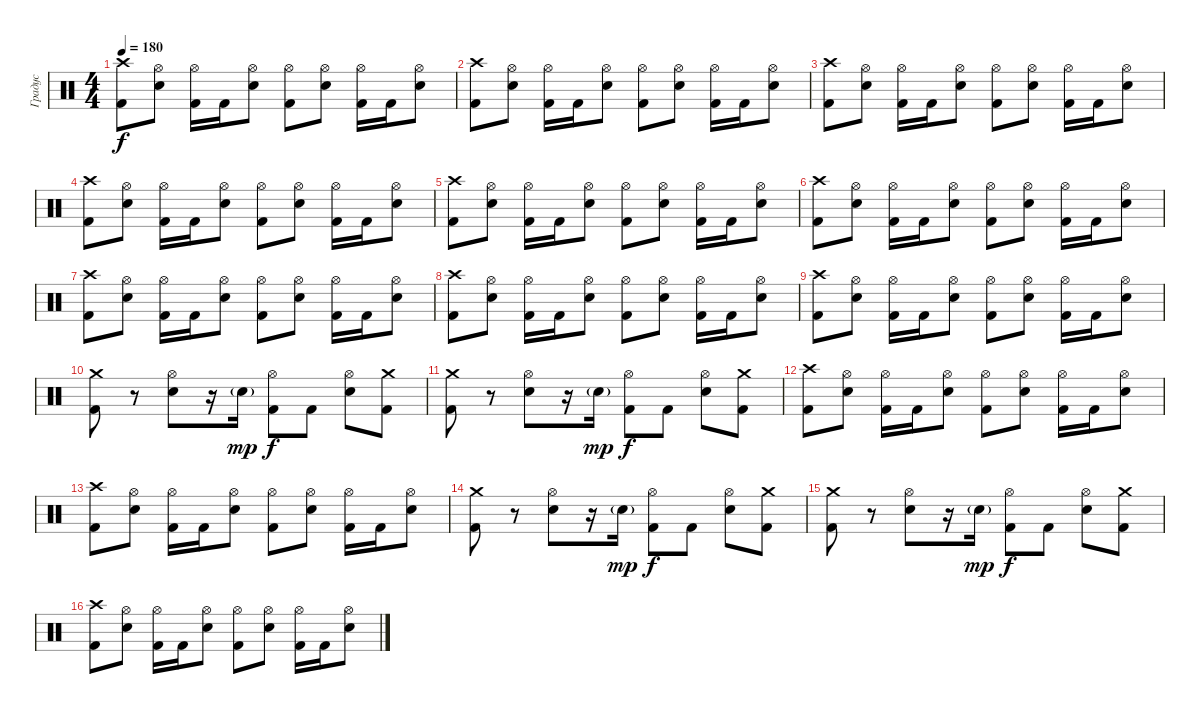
\track ("Градус" "Градус") {instrument percussion}
\staff {score}
\articulation defaults
\ts (4 4)
\tempo 180
\clef neutral
\ks c
("Kick (hit) 2" "Crash high (hit)").8{dy f} ("Electric Snare (hit)" "Hi-Hat (open)").8 ("Kick (hit) 2" "Hi-Hat (open)").16 "Kick (hit) 2".16 ("Electric Snare (hit)" "Hi-Hat (open)").8 ("Kick (hit) 2" "Hi-Hat (open)").8 ("Electric Snare (hit)" "Hi-Hat (open)").8 ("Kick (hit) 2" "Hi-Hat (open)").16 "Kick (hit) 2".16 ("Electric Snare (hit)" "Hi-Hat (open)").8 |
("Kick (hit) 2" "Crash high (hit)").8 ("Electric Snare (hit)" "Hi-Hat (open)").8 ("Kick (hit) 2" "Hi-Hat (open)").16 "Kick (hit) 2".16 ("Electric Snare (hit)" "Hi-Hat (open)").8 ("Kick (hit) 2" "Hi-Hat (open)").8 ("Electric Snare (hit)" "Hi-Hat (open)").8 ("Kick (hit) 2" "Hi-Hat (open)").16 "Kick (hit) 2".16 ("Electric Snare (hit)" "Hi-Hat (open)").8 |
("Kick (hit) 2" "Crash high (hit)").8 ("Electric Snare (hit)" "Hi-Hat (open)").8 ("Kick (hit) 2" "Hi-Hat (open)").16 "Kick (hit) 2".16 ("Electric Snare (hit)" "Hi-Hat (open)").8 ("Kick (hit) 2" "Hi-Hat (open)").8 ("Electric Snare (hit)" "Hi-Hat (open)").8 ("Kick (hit) 2" "Hi-Hat (open)").16 "Kick (hit) 2".16 ("Electric Snare (hit)" "Hi-Hat (open)").8 |
("Kick (hit) 2" "Crash high (hit)").8 ("Electric Snare (hit)" "Hi-Hat (open)").8 ("Kick (hit) 2" "Hi-Hat (open)").16 "Kick (hit) 2".16 ("Electric Snare (hit)" "Hi-Hat (open)").8 ("Kick (hit) 2" "Hi-Hat (open)").8 ("Electric Snare (hit)" "Hi-Hat (open)").8 ("Kick (hit) 2" "Hi-Hat (open)").16 "Kick (hit) 2".16 ("Electric Snare (hit)" "Hi-Hat (open)").8 |
("Kick (hit) 2" "Crash high (hit)").8 ("Electric Snare (hit)" "Hi-Hat (open)").8 ("Kick (hit) 2" "Hi-Hat (open)").16 "Kick (hit) 2".16 ("Electric Snare (hit)" "Hi-Hat (open)").8 ("Kick (hit) 2" "Hi-Hat (open)").8 ("Electric Snare (hit)" "Hi-Hat (open)").8 ("Kick (hit) 2" "Hi-Hat (open)").16 "Kick (hit) 2".16 ("Electric Snare (hit)" "Hi-Hat (open)").8 |
("Kick (hit) 2" "Crash high (hit)").8 ("Electric Snare (hit)" "Hi-Hat (open)").8 ("Kick (hit) 2" "Hi-Hat (open)").16 "Kick (hit) 2".16 ("Electric Snare (hit)" "Hi-Hat (open)").8 ("Kick (hit) 2" "Hi-Hat (open)").8 ("Electric Snare (hit)" "Hi-Hat (open)").8 ("Kick (hit) 2" "Hi-Hat (open)").16 "Kick (hit) 2".16 ("Electric Snare (hit)" "Hi-Hat (open)").8 |
("Kick (hit) 2" "Crash high (hit)").8 ("Electric Snare (hit)" "Hi-Hat (open)").8 ("Kick (hit) 2" "Hi-Hat (open)").16 "Kick (hit) 2".16 ("Electric Snare (hit)" "Hi-Hat (open)").8 ("Kick (hit) 2" "Hi-Hat (open)").8 ("Electric Snare (hit)" "Hi-Hat (open)").8 ("Kick (hit) 2" "Hi-Hat (open)").16 "Kick (hit) 2".16 ("Electric Snare (hit)" "Hi-Hat (open)").8 |
("Kick (hit) 2" "Crash high (hit)").8 ("Electric Snare (hit)" "Hi-Hat (open)").8 ("Kick (hit) 2" "Hi-Hat (open)").16 "Kick (hit) 2".16 ("Electric Snare (hit)" "Hi-Hat (open)").8 ("Kick (hit) 2" "Hi-Hat (open)").8 ("Electric Snare (hit)" "Hi-Hat (open)").8 ("Kick (hit) 2" "Hi-Hat (open)").16 "Kick (hit) 2".16 ("Electric Snare (hit)" "Hi-Hat (open)").8 |
("Kick (hit) 2" "Crash high (hit)").8 ("Electric Snare (hit)" "Hi-Hat (open)").8 ("Kick (hit) 2" "Hi-Hat (open)").16 "Kick (hit) 2".16 ("Electric Snare (hit)" "Hi-Hat (open)").8 ("Kick (hit) 2" "Hi-Hat (open)").8 ("Electric Snare (hit)" "Hi-Hat (open)").8 ("Kick (hit) 2" "Hi-Hat (open)").16 "Kick (hit) 2".16 ("Electric Snare (hit)" "Hi-Hat (open)").8 |
("Kick (hit) 2" "Crash medium (hit)").8 r.8 ("Electric Snare (hit)" "Hi-Hat (open)").8 r.16 "Electric Snare (hit)"{g}.16{dy mp} ("Kick (hit) 2" "Hi-Hat (open)").8{dy f} "Kick (hit) 2".8 ("Electric Snare (hit)" "Hi-Hat (open)").8 ("Kick (hit) 2" "Crash medium (hit)").8 |
("Kick (hit) 2" "Crash medium (hit)").8 r.8 ("Electric Snare (hit)" "Hi-Hat (open)").8 r.16 "Electric Snare (hit)"{g}.16{dy mp} ("Kick (hit) 2" "Hi-Hat (open)").8{dy f} "Kick (hit) 2".8 ("Electric Snare (hit)" "Hi-Hat (open)").8 ("Kick (hit) 2" "Crash medium (hit)").8 |
("Kick (hit) 2" "Crash high (hit)").8 ("Electric Snare (hit)" "Hi-Hat (open)").8 ("Kick (hit) 2" "Hi-Hat (open)").16 "Kick (hit) 2".16 ("Electric Snare (hit)" "Hi-Hat (open)").8 ("Kick (hit) 2" "Hi-Hat (open)").8 ("Electric Snare (hit)" "Hi-Hat (open)").8 ("Kick (hit) 2" "Hi-Hat (open)").16 "Kick (hit) 2".16 ("Electric Snare (hit)" "Hi-Hat (open)").8 |
("Kick (hit) 2" "Crash high (hit)").8 ("Electric Snare (hit)" "Hi-Hat (open)").8 ("Kick (hit) 2" "Hi-Hat (open)").16 "Kick (hit) 2".16 ("Electric Snare (hit)" "Hi-Hat (open)").8 ("Kick (hit) 2" "Hi-Hat (open)").8 ("Electric Snare (hit)" "Hi-Hat (open)").8 ("Kick (hit) 2" "Hi-Hat (open)").16 "Kick (hit) 2".16 ("Electric Snare (hit)" "Hi-Hat (open)").8 |
("Kick (hit) 2" "Crash medium (hit)").8 r.8 ("Electric Snare (hit)" "Hi-Hat (open)").8 r.16 "Electric Snare (hit)"{g}.16{dy mp} ("Kick (hit) 2" "Hi-Hat (open)").8{dy f} "Kick (hit) 2".8 ("Electric Snare (hit)" "Hi-Hat (open)").8 ("Kick (hit) 2" "Crash medium (hit)").8 |
("Kick (hit) 2" "Crash medium (hit)").8 r.8 ("Electric Snare (hit)" "Hi-Hat (open)").8 r.16 "Electric Snare (hit)"{g}.16{dy mp} ("Kick (hit) 2" "Hi-Hat (open)").8{dy f} "Kick (hit) 2".8 ("Electric Snare (hit)" "Hi-Hat (open)").8 ("Kick (hit) 2" "Crash medium (hit)").8 |
("Kick (hit) 2" "Crash high (hit)").8 ("Electric Snare (hit)" "Hi-Hat (open)").8 ("Kick (hit) 2" "Hi-Hat (open)").16 "Kick (hit) 2".16 ("Electric Snare (hit)" "Hi-Hat (open)").8 ("Kick (hit) 2" "Hi-Hat (open)").8 ("Electric Snare (hit)" "Hi-Hat (open)").8 ("Kick (hit) 2" "Hi-Hat (open)").16 "Kick (hit) 2".16 ("Electric Snare (hit)" "Hi-Hat (open)").8
